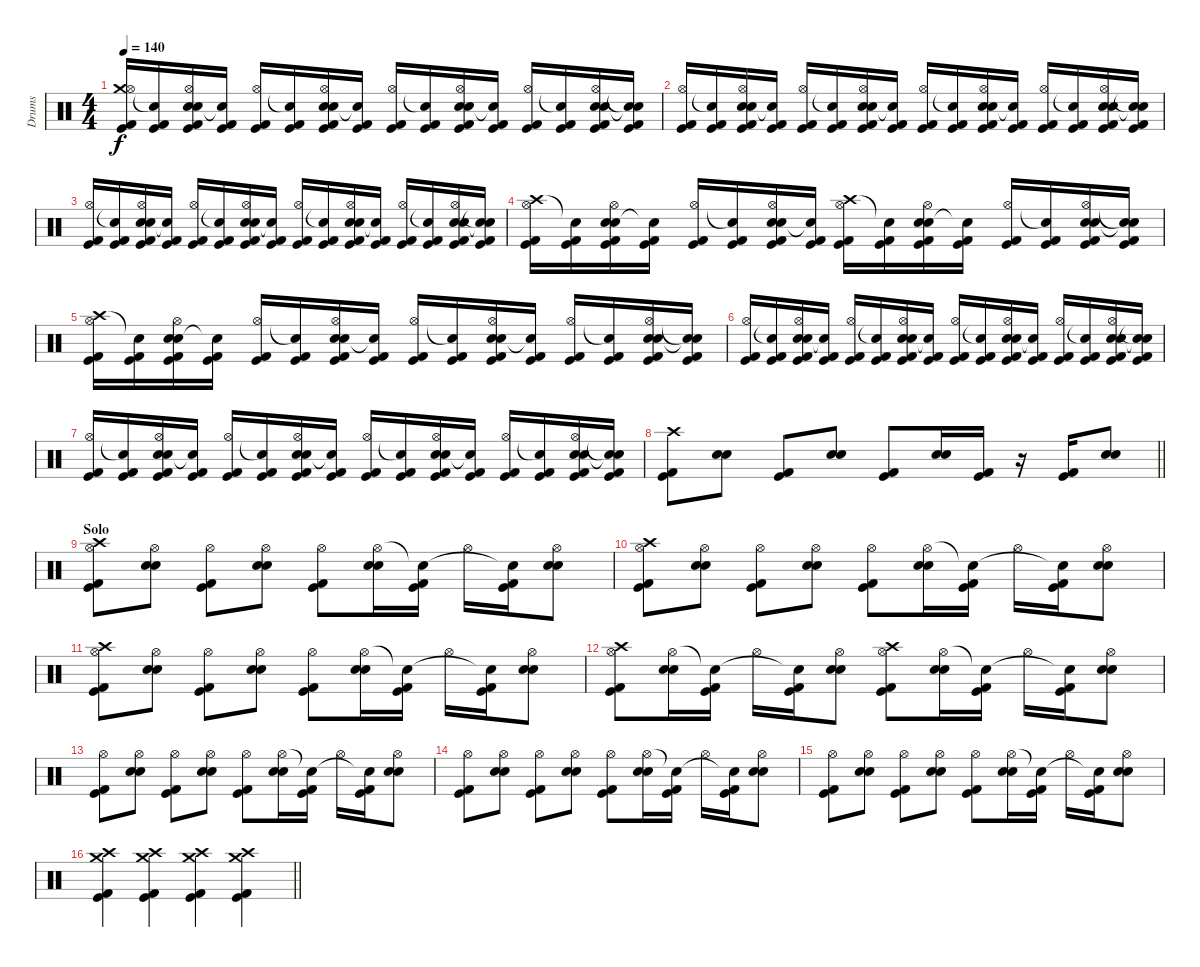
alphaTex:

\track ("Drums" "Drums") {instrument percussion}
\staff {score}
\articulation defaults
\ts (4 4)
\tempo 140
\clef neutral
\ks c
("Kick (hit) 2" "Crash medium (hit)" "Hi-Hat (open)" "Kick (hit)").16{dy f} ("Kick (hit) 2" "Snare (hit)"{t} "Kick (hit)").16 ("Kick (hit) 2" "Electric Snare (hit)" "Hi-Hat (open)" "Snare (hit) 2" "Kick (hit)").16 ("Kick (hit) 2" "Snare (hit)"{t} "Kick (hit)").16 ("Kick (hit) 2" "Hi-Hat (open)" "Kick (hit)").16 ("Kick (hit) 2" "Snare (hit)"{t} "Kick (hit)").16 ("Kick (hit) 2" "Electric Snare (hit)" "Hi-Hat (open)" "Snare (hit) 2" "Kick (hit)").16 ("Kick (hit) 2" "Snare (hit)"{t} "Kick (hit)").16 ("Kick (hit) 2" "Hi-Hat (open)" "Kick (hit)").16 ("Kick (hit) 2" "Snare (hit)"{t} "Kick (hit)").16 ("Kick (hit) 2" "Electric Snare (hit)" "Hi-Hat (open)" "Snare (hit) 2" "Kick (hit)").16 ("Kick (hit) 2" "Snare (hit)"{t} "Kick (hit)").16 ("Kick (hit) 2" "Hi-Hat (open)" "Kick (hit)").16 ("Kick (hit) 2" "Snare (hit)"{t} "Kick (hit)").16 ("Kick (hit) 2" "Electric Snare (hit)" "Hi-Hat (open)" "Snare (hit) 2" "Kick (hit)").16 ("Kick (hit) 2" "Snare (hit)"{t} "Snare (hit)"{t} "Kick (hit)").16 |
("Kick (hit) 2" "Hi-Hat (open)" "Kick (hit)").16 ("Kick (hit) 2" "Snare (hit)"{t} "Kick (hit)").16 ("Kick (hit) 2" "Electric Snare (hit)" "Hi-Hat (open)" "Snare (hit) 2" "Kick (hit)").16 ("Kick (hit) 2" "Snare (hit)"{t} "Kick (hit)").16 ("Kick (hit) 2" "Hi-Hat (open)" "Kick (hit)").16 ("Kick (hit) 2" "Snare (hit)"{t} "Kick (hit)").16 ("Kick (hit) 2" "Electric Snare (hit)" "Hi-Hat (open)" "Snare (hit) 2" "Kick (hit)").16 ("Kick (hit) 2" "Snare (hit)"{t} "Kick (hit)").16 ("Kick (hit) 2" "Hi-Hat (open)" "Kick (hit)").16 ("Kick (hit) 2" "Snare (hit)"{t} "Kick (hit)").16 ("Kick (hit) 2" "Electric Snare (hit)" "Hi-Hat (open)" "Snare (hit) 2" "Kick (hit)").16 ("Kick (hit) 2" "Snare (hit)"{t} "Kick (hit)").16 ("Kick (hit) 2" "Hi-Hat (open)" "Kick (hit)").16 ("Kick (hit) 2" "Snare (hit)"{t} "Kick (hit)").16 ("Kick (hit) 2" "Electric Snare (hit)" "Hi-Hat (open)" "Snare (hit) 2" "Kick (hit)").16 ("Kick (hit) 2" "Snare (hit)"{t} "Snare (hit)"{t} "Kick (hit)").16 |
("Kick (hit) 2" "Hi-Hat (open)" "Kick (hit)").16 ("Kick (hit) 2" "Snare (hit)"{t} "Kick (hit)").16 ("Kick (hit) 2" "Electric Snare (hit)" "Hi-Hat (open)" "Snare (hit) 2" "Kick (hit)").16 ("Kick (hit) 2" "Snare (hit)"{t} "Kick (hit)").16 ("Kick (hit) 2" "Hi-Hat (open)" "Kick (hit)").16 ("Kick (hit) 2" "Snare (hit)"{t} "Kick (hit)").16 ("Kick (hit) 2" "Electric Snare (hit)" "Hi-Hat (open)" "Snare (hit) 2" "Kick (hit)").16 ("Kick (hit) 2" "Snare (hit)"{t} "Kick (hit)").16 ("Kick (hit) 2" "Hi-Hat (open)" "Kick (hit)").16 ("Kick (hit) 2" "Snare (hit)"{t} "Kick (hit)").16 ("Kick (hit) 2" "Electric Snare (hit)" "Hi-Hat (open)" "Snare (hit) 2" "Kick (hit)").16 ("Kick (hit) 2" "Snare (hit)"{t} "Kick (hit)").16 ("Kick (hit) 2" "Hi-Hat (open)" "Kick (hit)").16 ("Kick (hit) 2" "Snare (hit)"{t} "Kick (hit)").16 ("Kick (hit) 2" "Electric Snare (hit)" "Hi-Hat (open)" "Snare (hit) 2" "Kick (hit)").16 ("Kick (hit) 2" "Snare (hit)"{t} "Snare (hit)"{t} "Kick (hit)").16 |
("Kick (hit) 2" "Crash high (hit)" "Hi-Hat (open)" "Kick (hit)").16 ("Kick (hit) 2" "Snare (hit)"{t} "Kick (hit)").16 ("Kick (hit) 2" "Electric Snare (hit)" "Hi-Hat (open)" "Snare (hit) 2" "Kick (hit)").16 ("Kick (hit) 2" "Snare (hit)"{t} "Kick (hit)").16 ("Kick (hit) 2" "Hi-Hat (open)" "Kick (hit)").16 ("Kick (hit) 2" "Snare (hit)"{t} "Kick (hit)").16 ("Kick (hit) 2" "Electric Snare (hit)" "Hi-Hat (open)" "Snare (hit) 2" "Kick (hit)").16 ("Kick (hit) 2" "Snare (hit)"{t} "Kick (hit)").16 ("Kick (hit) 2" "Crash high (hit)" "Hi-Hat (open)" "Kick (hit)").16 ("Kick (hit) 2" "Snare (hit)"{t} "Kick (hit)").16 ("Kick (hit) 2" "Electric Snare (hit)" "Hi-Hat (open)" "Snare (hit) 2" "Kick (hit)").16 ("Kick (hit) 2" "Snare (hit)"{t} "Kick (hit)").16 ("Kick (hit) 2" "Hi-Hat (open)" "Kick (hit)").16 ("Kick (hit) 2" "Snare (hit)"{t} "Kick (hit)").16 ("Kick (hit) 2" "Electric Snare (hit)" "Hi-Hat (open)" "Snare (hit) 2" "Kick (hit)").16 ("Kick (hit) 2" "Snare (hit)"{t} "Snare (hit)"{t} "Kick (hit)").16 |
("Kick (hit) 2" "Crash high (hit)" "Hi-Hat (open)" "Kick (hit)").16 ("Kick (hit) 2" "Snare (hit)"{t} "Kick (hit)").16 ("Kick (hit) 2" "Electric Snare (hit)" "Hi-Hat (open)" "Snare (hit) 2" "Kick (hit)").16 ("Kick (hit) 2" "Snare (hit)"{t} "Kick (hit)").16 ("Kick (hit) 2" "Hi-Hat (open)" "Kick (hit)").16 ("Kick (hit) 2" "Snare (hit)"{t} "Kick (hit)").16 ("Kick (hit) 2" "Electric Snare (hit)" "Hi-Hat (open)" "Snare (hit) 2" "Kick (hit)").16 ("Kick (hit) 2" "Snare (hit)"{t} "Kick (hit)").16 ("Kick (hit) 2" "Hi-Hat (open)" "Kick (hit)").16 ("Kick (hit) 2" "Snare (hit)"{t} "Kick (hit)").16 ("Kick (hit) 2" "Electric Snare (hit)" "Hi-Hat (open)" "Snare (hit) 2" "Kick (hit)").16 ("Kick (hit) 2" "Snare (hit)"{t} "Kick (hit)").16 ("Kick (hit) 2" "Hi-Hat (open)" "Kick (hit)").16 ("Kick (hit) 2" "Snare (hit)"{t} "Kick (hit)").16 ("Kick (hit) 2" "Electric Snare (hit)" "Hi-Hat (open)" "Snare (hit) 2" "Kick (hit)").16 ("Kick (hit) 2" "Snare (hit)"{t} "Snare (hit)"{t} "Kick (hit)").16 |
("Kick (hit) 2" "Hi-Hat (open)" "Kick (hit)").16 ("Kick (hit) 2" "Snare (hit)"{t} "Kick (hit)").16 ("Kick (hit) 2" "Electric Snare (hit)" "Hi-Hat (open)" "Snare (hit) 2" "Kick (hit)").16 ("Kick (hit) 2" "Snare (hit)"{t} "Kick (hit)").16 ("Kick (hit) 2" "Hi-Hat (open)" "Kick (hit)").16 ("Kick (hit) 2" "Snare (hit)"{t} "Kick (hit)").16 ("Kick (hit) 2" "Electric Snare (hit)" "Hi-Hat (open)" "Snare (hit) 2" "Kick (hit)").16 ("Kick (hit) 2" "Snare (hit)"{t} "Kick (hit)").16 ("Kick (hit) 2" "Hi-Hat (open)" "Kick (hit)").16 ("Kick (hit) 2" "Snare (hit)"{t} "Kick (hit)").16 ("Kick (hit) 2" "Electric Snare (hit)" "Hi-Hat (open)" "Snare (hit) 2" "Kick (hit)").16 ("Kick (hit) 2" "Snare (hit)"{t} "Kick (hit)").16 ("Kick (hit) 2" "Hi-Hat (open)" "Kick (hit)").16 ("Kick (hit) 2" "Snare (hit)"{t} "Kick (hit)").16 ("Kick (hit) 2" "Electric Snare (hit)" "Hi-Hat (open)" "Snare (hit) 2" "Kick (hit)").16 ("Kick (hit) 2" "Snare (hit)"{t} "Snare (hit)"{t} "Kick (hit)").16 |
("Kick (hit) 2" "Hi-Hat (open)" "Kick (hit)").16 ("Kick (hit) 2" "Snare (hit)"{t} "Kick (hit)").16 ("Kick (hit) 2" "Electric Snare (hit)" "Hi-Hat (open)" "Snare (hit) 2" "Kick (hit)").16 ("Kick (hit) 2" "Snare (hit)"{t} "Kick (hit)").16 ("Kick (hit) 2" "Hi-Hat (open)" "Kick (hit)").16 ("Kick (hit) 2" "Snare (hit)"{t} "Kick (hit)").16 ("Kick (hit) 2" "Electric Snare (hit)" "Hi-Hat (open)" "Snare (hit) 2" "Kick (hit)").16 ("Kick (hit) 2" "Snare (hit)"{t} "Kick (hit)").16 ("Kick (hit) 2" "Hi-Hat (open)" "Kick (hit)").16 ("Kick (hit) 2" "Snare (hit)"{t} "Kick (hit)").16 ("Kick (hit) 2" "Electric Snare (hit)" "Hi-Hat (open)" "Snare (hit) 2" "Kick (hit)").16 ("Kick (hit) 2" "Snare (hit)"{t} "Kick (hit)").16 ("Kick (hit) 2" "Hi-Hat (open)" "Kick (hit)").16 ("Kick (hit) 2" "Snare (hit)"{t} "Kick (hit)").16 ("Kick (hit) 2" "Electric Snare (hit)" "Hi-Hat (open)" "Snare (hit) 2" "Kick (hit)").16 ("Kick (hit) 2" "Snare (hit)"{t} "Snare (hit)"{t} "Kick (hit)").16 |
\barLineRight lightlight
("Kick (hit) 2" "Crash high (hit)" "Kick (hit)").8 ("Electric Snare (hit)" "Snare (hit) 2").8 ("Kick (hit) 2" "Kick (hit)").8 ("Electric Snare (hit)" "Snare (hit) 2").8 ("Kick (hit) 2" "Kick (hit)").8 ("Electric Snare (hit)" "Snare (hit) 2").16 ("Kick (hit) 2" "Kick (hit)").16 r.16 ("Kick (hit) 2" "Kick (hit)").16 ("Electric Snare (hit)" "Snare (hit) 2").8 |
\section ("" "Solo")
("Kick (hit) 2" "Crash high (hit)" "Hi-Hat (open)" "Kick (hit)").8 ("Electric Snare (hit)" "Hi-Hat (open)" "Snare (hit) 2").8 ("Kick (hit) 2" "Hi-Hat (open)" "Kick (hit)").8 ("Electric Snare (hit)" "Hi-Hat (open)" "Snare (hit) 2").8 ("Kick (hit) 2" "Hi-Hat (open)" "Kick (hit)").8 ("Electric Snare (hit)" "Hi-Hat (open)" "Snare (hit) 2").16 ("Kick (hit) 2" "Snare (hit)"{t} "Kick (hit)").16 "Hi-Hat (open)".16 ("Kick (hit) 2" "Snare (hit)"{t} "Kick (hit)").16 ("Electric Snare (hit)" "Hi-Hat (open)" "Snare (hit) 2").8 |
("Kick (hit) 2" "Crash high (hit)" "Hi-Hat (open)" "Kick (hit)").8 ("Electric Snare (hit)" "Hi-Hat (open)" "Snare (hit) 2").8 ("Kick (hit) 2" "Hi-Hat (open)" "Kick (hit)").8 ("Electric Snare (hit)" "Hi-Hat (open)" "Snare (hit) 2").8 ("Kick (hit) 2" "Hi-Hat (open)" "Kick (hit)").8 ("Electric Snare (hit)" "Hi-Hat (open)" "Snare (hit) 2").16 ("Kick (hit) 2" "Snare (hit)"{t} "Kick (hit)").16 "Hi-Hat (open)".16 ("Kick (hit) 2" "Snare (hit)"{t} "Kick (hit)").16 ("Electric Snare (hit)" "Hi-Hat (open)" "Snare (hit) 2").8 |
("Kick (hit) 2" "Crash high (hit)" "Hi-Hat (open)" "Kick (hit)").8 ("Electric Snare (hit)" "Hi-Hat (open)" "Snare (hit) 2").8 ("Kick (hit) 2" "Hi-Hat (open)" "Kick (hit)").8 ("Electric Snare (hit)" "Hi-Hat (open)" "Snare (hit) 2").8 ("Kick (hit) 2" "Hi-Hat (open)" "Kick (hit)").8 ("Electric Snare (hit)" "Hi-Hat (open)" "Snare (hit) 2").16 ("Kick (hit) 2" "Snare (hit)"{t} "Kick (hit)").16 "Hi-Hat (open)".16 ("Kick (hit) 2" "Snare (hit)"{t} "Kick (hit)").16 ("Electric Snare (hit)" "Hi-Hat (open)" "Snare (hit) 2").8 |
("Kick (hit) 2" "Crash high (hit)" "Hi-Hat (open)" "Kick (hit)").8 ("Electric Snare (hit)" "Hi-Hat (open)" "Snare (hit) 2").16 ("Kick (hit) 2" "Snare (hit)"{t} "Kick (hit)").16 "Hi-Hat (open)".16 ("Kick (hit) 2" "Snare (hit)"{t} "Kick (hit)").16 ("Electric Snare (hit)" "Hi-Hat (open)" "Snare (hit) 2").8 ("Kick (hit) 2" "Crash high (hit)" "Hi-Hat (open)" "Kick (hit)").8 ("Electric Snare (hit)" "Hi-Hat (open)" "Snare (hit) 2").16 ("Kick (hit) 2" "Snare (hit)"{t} "Kick (hit)").16 "Hi-Hat (open)".16 ("Kick (hit) 2" "Snare (hit)"{t} "Kick (hit)").16 ("Electric Snare (hit)" "Hi-Hat (open)" "Snare (hit) 2").8 |
("Kick (hit) 2" "Hi-Hat (open)" "Kick (hit)").8 ("Electric Snare (hit)" "Hi-Hat (open)" "Snare (hit) 2").8 ("Kick (hit) 2" "Hi-Hat (open)" "Kick (hit)").8 ("Electric Snare (hit)" "Hi-Hat (open)" "Snare (hit) 2").8 ("Kick (hit) 2" "Hi-Hat (open)" "Kick (hit)").8 ("Electric Snare (hit)" "Hi-Hat (open)" "Snare (hit) 2").16 ("Kick (hit) 2" "Snare (hit)"{t} "Kick (hit)").16 "Hi-Hat (open)".16 ("Kick (hit) 2" "Snare (hit)"{t} "Kick (hit)").16 ("Electric Snare (hit)" "Hi-Hat (open)" "Snare (hit) 2").8 |
("Kick (hit) 2" "Hi-Hat (open)" "Kick (hit)").8 ("Electric Snare (hit)" "Hi-Hat (open)" "Snare (hit) 2").8 ("Kick (hit) 2" "Hi-Hat (open)" "Kick (hit)").8 ("Electric Snare (hit)" "Hi-Hat (open)" "Snare (hit) 2").8 ("Kick (hit) 2" "Hi-Hat (open)" "Kick (hit)").8 ("Electric Snare (hit)" "Hi-Hat (open)" "Snare (hit) 2").16 ("Kick (hit) 2" "Snare (hit)"{t} "Kick (hit)").16 "Hi-Hat (open)".16 ("Kick (hit) 2" "Snare (hit)"{t} "Kick (hit)").16 ("Electric Snare (hit)" "Hi-Hat (open)" "Snare (hit) 2").8 |
("Kick (hit) 2" "Hi-Hat (open)" "Kick (hit)").8 ("Electric Snare (hit)" "Hi-Hat (open)" "Snare (hit) 2").8 ("Kick (hit) 2" "Hi-Hat (open)" "Kick (hit)").8 ("Electric Snare (hit)" "Hi-Hat (open)" "Snare (hit) 2").8 ("Kick (hit) 2" "Hi-Hat (open)" "Kick (hit)").8 ("Electric Snare (hit)" "Hi-Hat (open)" "Snare (hit) 2").16 ("Kick (hit) 2" "Snare (hit)"{t} "Kick (hit)").16 "Hi-Hat (open)".16 ("Kick (hit) 2" "Snare (hit)"{t} "Kick (hit)").16 ("Electric Snare (hit)" "Hi-Hat (open)" "Snare (hit) 2").8 |
\barLineRight lightlight
("Kick (hit) 2" "Crash medium (hit)" "Crash high (hit)" "Kick (hit)").4 ("Kick (hit) 2" "Crash medium (hit)" "Crash high (hit)" "Kick (hit)").4 ("Kick (hit) 2" "Crash medium (hit)" "Crash high (hit)" "Kick (hit)").4 ("Kick (hit) 2" "Crash medium (hit)" "Crash high (hit)" "Kick (hit)").4
